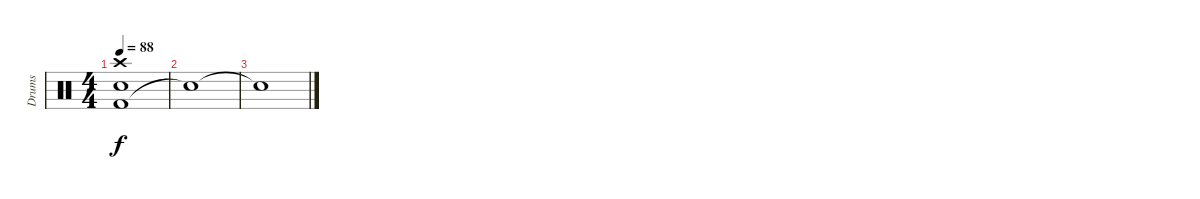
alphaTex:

\track ("Drums" "Drums") {instrument percussion}
\staff {score}
\articulation defaults
\ts (4 4)
\tempo 88
\clef neutral
\ks c
("Kick (hit) 2" "Electric Snare (hit)" "Crash high (hit)").1{dy f} |
"Snare (hit)"{t}.1 |
"Snare (hit)"{t}.1
